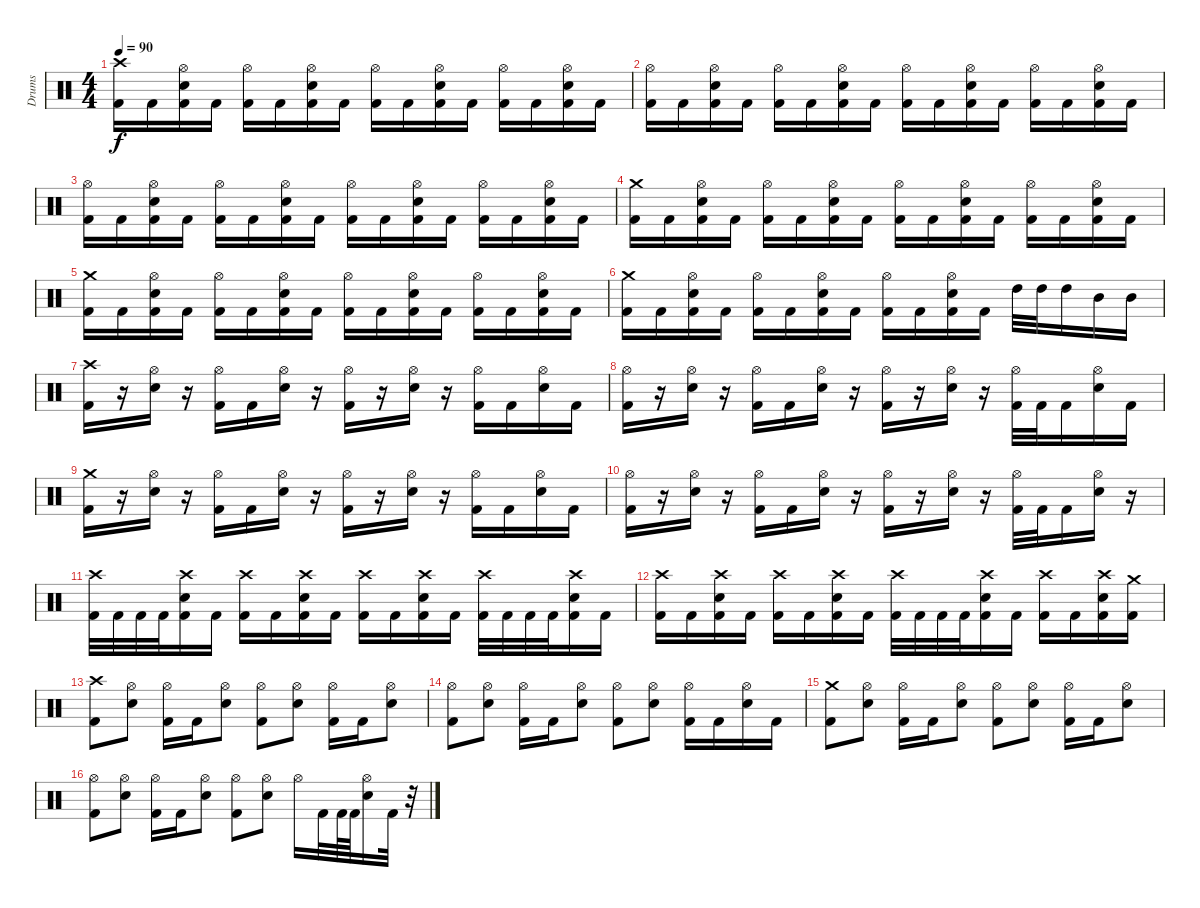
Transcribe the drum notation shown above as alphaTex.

\track ("Drums" "Drums") {instrument percussion}
\staff {score}
\articulation defaults
\ts (4 4)
\tempo 90
\clef neutral
\ks c
("Crash high (hit)" "Kick (hit) 2").16{dy f} "Kick (hit) 2".16 ("Hi-Hat (open)" "Snare (hit) 2" "Kick (hit) 2").16 "Kick (hit) 2".16 ("Hi-Hat (open)" "Kick (hit) 2").16 "Kick (hit) 2".16 ("Hi-Hat (open)" "Snare (hit) 2" "Kick (hit) 2").16 "Kick (hit) 2".16 ("Hi-Hat (open)" "Kick (hit) 2").16 "Kick (hit) 2".16 ("Hi-Hat (open)" "Snare (hit) 2" "Kick (hit) 2").16 "Kick (hit) 2".16 ("Hi-Hat (open)" "Kick (hit) 2").16 "Kick (hit) 2".16 ("Hi-Hat (open)" "Snare (hit) 2" "Kick (hit) 2").16 "Kick (hit) 2".16 |
("Hi-Hat (open)" "Kick (hit) 2").16 "Kick (hit) 2".16 ("Hi-Hat (open)" "Snare (hit) 2" "Kick (hit) 2").16 "Kick (hit) 2".16 ("Hi-Hat (open)" "Kick (hit) 2").16 "Kick (hit) 2".16 ("Hi-Hat (open)" "Snare (hit) 2" "Kick (hit) 2").16 "Kick (hit) 2".16 ("Hi-Hat (open)" "Kick (hit) 2").16 "Kick (hit) 2".16 ("Hi-Hat (open)" "Snare (hit) 2" "Kick (hit) 2").16 "Kick (hit) 2".16 ("Hi-Hat (open)" "Kick (hit) 2").16 "Kick (hit) 2".16 ("Hi-Hat (open)" "Snare (hit) 2" "Kick (hit) 2").16 "Kick (hit) 2".16 |
("Hi-Hat (open)" "Kick (hit) 2").16 "Kick (hit) 2".16 ("Hi-Hat (open)" "Snare (hit) 2" "Kick (hit) 2").16 "Kick (hit) 2".16 ("Hi-Hat (open)" "Kick (hit) 2").16 "Kick (hit) 2".16 ("Hi-Hat (open)" "Snare (hit) 2" "Kick (hit) 2").16 "Kick (hit) 2".16 ("Hi-Hat (open)" "Kick (hit) 2").16 "Kick (hit) 2".16 ("Hi-Hat (open)" "Snare (hit) 2" "Kick (hit) 2").16 "Kick (hit) 2".16 ("Hi-Hat (open)" "Kick (hit) 2").16 "Kick (hit) 2".16 ("Hi-Hat (open)" "Snare (hit) 2" "Kick (hit) 2").16 "Kick (hit) 2".16 |
("Crash medium (hit)" "Kick (hit) 2").16 "Kick (hit) 2".16 ("Hi-Hat (open)" "Snare (hit) 2" "Kick (hit) 2").16 "Kick (hit) 2".16 ("Hi-Hat (open)" "Kick (hit) 2").16 "Kick (hit) 2".16 ("Hi-Hat (open)" "Snare (hit) 2" "Kick (hit) 2").16 "Kick (hit) 2".16 ("Hi-Hat (open)" "Kick (hit) 2").16 "Kick (hit) 2".16 ("Hi-Hat (open)" "Snare (hit) 2" "Kick (hit) 2").16 "Kick (hit) 2".16 ("Hi-Hat (open)" "Kick (hit) 2").16 "Kick (hit) 2".16 ("Hi-Hat (open)" "Snare (hit) 2" "Kick (hit) 2").16 "Kick (hit) 2".16 |
("Crash medium (hit)" "Kick (hit) 2").16 "Kick (hit) 2".16 ("Hi-Hat (open)" "Snare (hit) 2" "Kick (hit) 2").16 "Kick (hit) 2".16 ("Hi-Hat (open)" "Kick (hit) 2").16 "Kick (hit) 2".16 ("Hi-Hat (open)" "Snare (hit) 2" "Kick (hit) 2").16 "Kick (hit) 2".16 ("Hi-Hat (open)" "Kick (hit) 2").16 "Kick (hit) 2".16 ("Hi-Hat (open)" "Snare (hit) 2" "Kick (hit) 2").16 "Kick (hit) 2".16 ("Hi-Hat (open)" "Kick (hit) 2").16 "Kick (hit) 2".16 ("Hi-Hat (open)" "Snare (hit) 2" "Kick (hit) 2").16 "Kick (hit) 2".16 |
("Crash medium (hit)" "Kick (hit) 2").16 "Kick (hit) 2".16 ("Hi-Hat (open)" "Snare (hit) 2" "Kick (hit) 2").16 "Kick (hit) 2".16 ("Hi-Hat (open)" "Kick (hit) 2").16 "Kick (hit) 2".16 ("Hi-Hat (open)" "Snare (hit) 2" "Kick (hit) 2").16 "Kick (hit) 2".16 ("Hi-Hat (open)" "Kick (hit) 2").16 "Kick (hit) 2".16 ("Hi-Hat (open)" "Snare (hit) 2" "Kick (hit) 2").16 "Kick (hit) 2".16 "High Tom (hit)".32 "High Tom (hit)".32 "High Tom (hit)".16 "Mid Tom (hit)".16 "Mid Tom (hit)".16 |
("Crash high (hit)" "Kick (hit) 2").16 r.16 ("Hi-Hat (open)" "Snare (hit) 2").16 r.16 ("Hi-Hat (open)" "Kick (hit) 2").16 "Kick (hit) 2".16 ("Hi-Hat (open)" "Snare (hit) 2").16 r.16 ("Hi-Hat (open)" "Kick (hit) 2").16 r.16 ("Hi-Hat (open)" "Snare (hit) 2").16 r.16 ("Hi-Hat (open)" "Kick (hit) 2").16 "Kick (hit) 2".16 ("Hi-Hat (open)" "Snare (hit) 2").16 "Kick (hit) 2".16 |
("Hi-Hat (open)" "Kick (hit) 2").16 r.16 ("Hi-Hat (open)" "Snare (hit) 2").16 r.16 ("Hi-Hat (open)" "Kick (hit) 2").16 "Kick (hit) 2".16 ("Hi-Hat (open)" "Snare (hit) 2").16 r.16 ("Hi-Hat (open)" "Kick (hit) 2").16 r.16 ("Hi-Hat (open)" "Snare (hit) 2").16 r.16 ("Hi-Hat (open)" "Kick (hit) 2").32 "Kick (hit) 2".32 "Kick (hit) 2".16 ("Hi-Hat (open)" "Snare (hit) 2").16 "Kick (hit) 2".16 |
("Crash medium (hit)" "Kick (hit) 2").16 r.16 ("Hi-Hat (open)" "Snare (hit) 2").16 r.16 ("Hi-Hat (open)" "Kick (hit) 2").16 "Kick (hit) 2".16 ("Hi-Hat (open)" "Snare (hit) 2").16 r.16 ("Hi-Hat (open)" "Kick (hit) 2").16 r.16 ("Hi-Hat (open)" "Snare (hit) 2").16 r.16 ("Hi-Hat (open)" "Kick (hit) 2").16 "Kick (hit) 2".16 ("Hi-Hat (open)" "Snare (hit) 2").16 "Kick (hit) 2".16 |
("Hi-Hat (open)" "Kick (hit) 2").16 r.16 ("Hi-Hat (open)" "Snare (hit) 2").16 r.16 ("Hi-Hat (open)" "Kick (hit) 2").16 "Kick (hit) 2".16 ("Hi-Hat (open)" "Snare (hit) 2").16 r.16 ("Hi-Hat (open)" "Kick (hit) 2").16 r.16 ("Hi-Hat (open)" "Snare (hit) 2").16 r.16 ("Hi-Hat (open)" "Kick (hit) 2").32 "Kick (hit) 2".32 "Kick (hit) 2".16 ("Hi-Hat (open)" "Snare (hit) 2").16 r.16 |
("Crash high (hit)" "Kick (hit) 2").32 "Kick (hit) 2".32 "Kick (hit) 2".32 "Kick (hit) 2".32 ("Crash high (hit)" "Snare (hit) 2" "Kick (hit) 2").16 "Kick (hit) 2".16 ("Crash high (hit)" "Kick (hit) 2").16 "Kick (hit) 2".16 ("Crash high (hit)" "Snare (hit) 2" "Kick (hit) 2").16 "Kick (hit) 2".16 ("Crash high (hit)" "Kick (hit) 2").16 "Kick (hit) 2".16 ("Crash high (hit)" "Snare (hit) 2" "Kick (hit) 2").16 "Kick (hit) 2".16 ("Crash high (hit)" "Kick (hit) 2").32 "Kick (hit) 2".32 "Kick (hit) 2".32 "Kick (hit) 2".32 ("Crash high (hit)" "Snare (hit) 2" "Kick (hit) 2").16 "Kick (hit) 2".16 |
("Crash high (hit)" "Kick (hit) 2").16 "Kick (hit) 2".16 ("Crash high (hit)" "Snare (hit) 2" "Kick (hit) 2").16 "Kick (hit) 2".16 ("Crash high (hit)" "Kick (hit) 2").16 "Kick (hit) 2".16 ("Crash high (hit)" "Snare (hit) 2" "Kick (hit) 2").16 "Kick (hit) 2".16 ("Crash high (hit)" "Kick (hit) 2").32 "Kick (hit) 2".32 "Kick (hit) 2".32 "Kick (hit) 2".32 ("Crash high (hit)" "Snare (hit) 2" "Kick (hit) 2").16 "Kick (hit) 2".16 ("Crash high (hit)" "Kick (hit) 2").16 "Kick (hit) 2".16 ("Crash high (hit)" "Snare (hit) 2" "Kick (hit) 2").16 ("Crash medium (hit)" "Kick (hit) 2").16 |
("Crash high (hit)" "Kick (hit) 2").8 ("Hi-Hat (open)" "Snare (hit) 2").8 ("Hi-Hat (open)" "Kick (hit) 2").16 "Kick (hit) 2".16 ("Hi-Hat (open)" "Snare (hit) 2").8 ("Hi-Hat (open)" "Kick (hit) 2").8 ("Hi-Hat (open)" "Snare (hit) 2").8 ("Hi-Hat (open)" "Kick (hit) 2").16 "Kick (hit) 2".16 ("Hi-Hat (open)" "Snare (hit) 2").8 |
("Hi-Hat (open)" "Kick (hit) 2").8 ("Hi-Hat (open)" "Snare (hit) 2").8 ("Hi-Hat (open)" "Kick (hit) 2").16 "Kick (hit) 2".16 ("Hi-Hat (open)" "Snare (hit) 2").8 ("Hi-Hat (open)" "Kick (hit) 2").8 ("Hi-Hat (open)" "Snare (hit) 2").8 ("Hi-Hat (open)" "Kick (hit) 2").16 "Kick (hit) 2".16 ("Hi-Hat (open)" "Snare (hit) 2").16 "Kick (hit) 2".16 |
("Crash medium (hit)" "Kick (hit) 2").8 ("Hi-Hat (open)" "Snare (hit) 2").8 ("Hi-Hat (open)" "Kick (hit) 2").16 "Kick (hit) 2".16 ("Hi-Hat (open)" "Snare (hit) 2").8 ("Hi-Hat (open)" "Kick (hit) 2").8 ("Hi-Hat (open)" "Snare (hit) 2").8 ("Hi-Hat (open)" "Kick (hit) 2").16 "Kick (hit) 2".16 ("Hi-Hat (open)" "Snare (hit) 2").8 |
("Hi-Hat (open)" "Kick (hit) 2").8 ("Hi-Hat (open)" "Snare (hit) 2").8 ("Hi-Hat (open)" "Kick (hit) 2").16 "Kick (hit) 2".16 ("Hi-Hat (open)" "Snare (hit) 2").8 ("Hi-Hat (open)" "Kick (hit) 2").8 ("Hi-Hat (open)" "Snare (hit) 2").8 "Hi-Hat (open)".16 "Kick (hit) 2".32 "Kick (hit) 2".64 "Kick (hit) 2".64 ("Hi-Hat (open)" "Snare (hit) 2").16 "Kick (hit) 2".32 r.32
